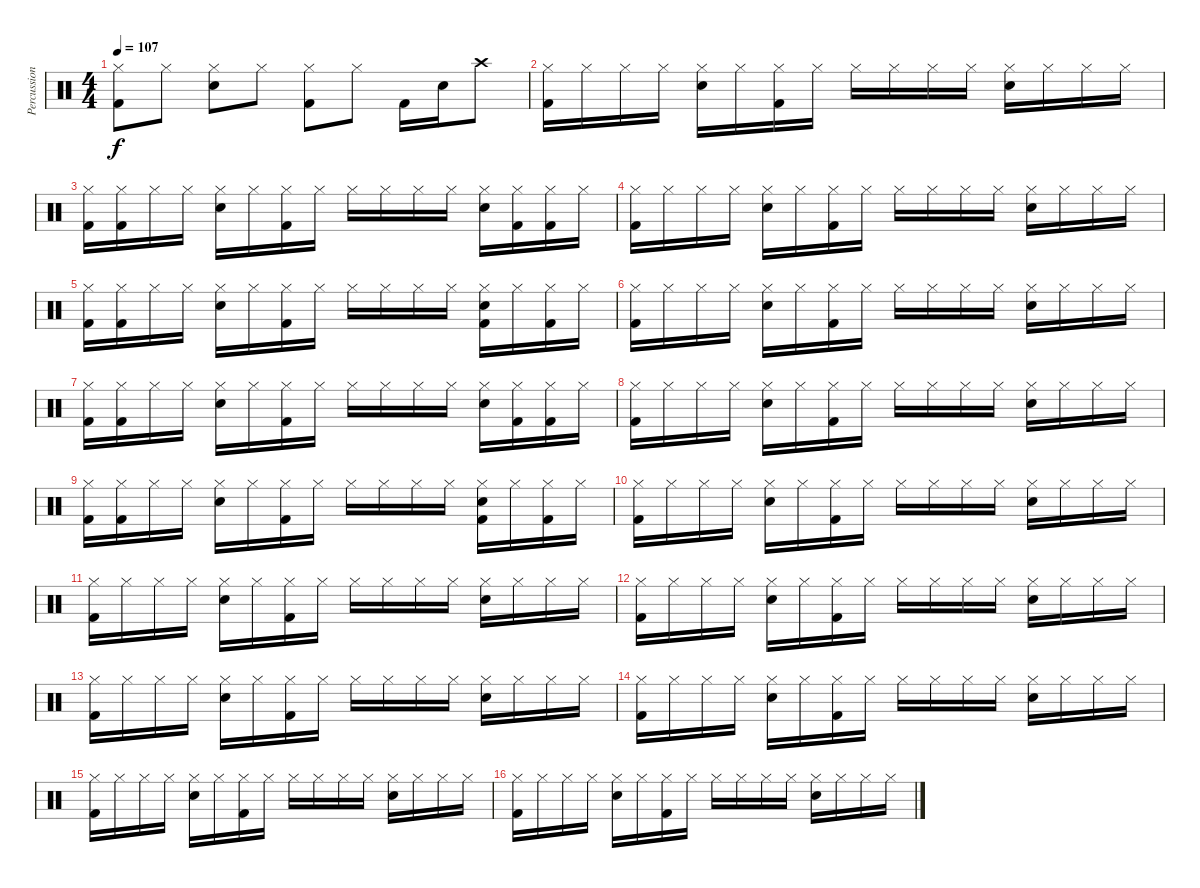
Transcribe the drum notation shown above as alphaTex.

\track ("Percussion" "Percussion") {instrument percussion}
\staff {score}
\articulation defaults
\ts (4 4)
\tempo 107
\clef neutral
\ks c
("Hi-Hat (closed)" "Kick (hit) 2").8{dy f} "Hi-Hat (closed)".8 ("Hi-Hat (closed)" "Snare (hit) 2").8 "Hi-Hat (closed)".8 ("Hi-Hat (closed)" "Kick (hit) 2").8 "Hi-Hat (closed)".8 "Kick (hit) 2".16 "Snare (hit) 2".16 "Crash high (hit)".8 |
("Hi-Hat (closed)" "Kick (hit) 2").16 "Hi-Hat (closed)".16 "Hi-Hat (closed)".16 "Hi-Hat (closed)".16 ("Hi-Hat (closed)" "Snare (hit) 2").16 "Hi-Hat (closed)".16 ("Hi-Hat (closed)" "Kick (hit) 2").16 "Hi-Hat (closed)".16 "Hi-Hat (closed)".16 "Hi-Hat (closed)".16 "Hi-Hat (closed)".16 "Hi-Hat (closed)".16 ("Hi-Hat (closed)" "Snare (hit) 2").16 "Hi-Hat (closed)".16 "Hi-Hat (closed)".16 "Hi-Hat (closed)".16 |
("Hi-Hat (closed)" "Kick (hit) 2").16 ("Hi-Hat (closed)" "Kick (hit) 2").16 "Hi-Hat (closed)".16 "Hi-Hat (closed)".16 ("Hi-Hat (closed)" "Snare (hit) 2").16 "Hi-Hat (closed)".16 ("Hi-Hat (closed)" "Kick (hit) 2").16 "Hi-Hat (closed)".16 "Hi-Hat (closed)".16 "Hi-Hat (closed)".16 "Hi-Hat (closed)".16 "Hi-Hat (closed)".16 ("Hi-Hat (closed)" "Snare (hit) 2").16 ("Hi-Hat (closed)" "Kick (hit) 2").16 ("Hi-Hat (closed)" "Kick (hit) 2").16 "Hi-Hat (closed)".16 |
("Hi-Hat (closed)" "Kick (hit) 2").16 "Hi-Hat (closed)".16 "Hi-Hat (closed)".16 "Hi-Hat (closed)".16 ("Hi-Hat (closed)" "Snare (hit) 2").16 "Hi-Hat (closed)".16 ("Hi-Hat (closed)" "Kick (hit) 2").16 "Hi-Hat (closed)".16 "Hi-Hat (closed)".16 "Hi-Hat (closed)".16 "Hi-Hat (closed)".16 "Hi-Hat (closed)".16 ("Hi-Hat (closed)" "Snare (hit) 2").16 "Hi-Hat (closed)".16 "Hi-Hat (closed)".16 "Hi-Hat (closed)".16 |
("Hi-Hat (closed)" "Kick (hit) 2").16 ("Hi-Hat (closed)" "Kick (hit) 2").16 "Hi-Hat (closed)".16 "Hi-Hat (closed)".16 ("Hi-Hat (closed)" "Snare (hit) 2").16 "Hi-Hat (closed)".16 ("Hi-Hat (closed)" "Kick (hit) 2").16 "Hi-Hat (closed)".16 "Hi-Hat (closed)".16 "Hi-Hat (closed)".16 "Hi-Hat (closed)".16 "Hi-Hat (closed)".16 ("Hi-Hat (closed)" "Snare (hit) 2" "Kick (hit) 2").16 "Hi-Hat (closed)".16 ("Hi-Hat (closed)" "Kick (hit) 2").16 "Hi-Hat (closed)".16 |
("Hi-Hat (closed)" "Kick (hit) 2").16 "Hi-Hat (closed)".16 "Hi-Hat (closed)".16 "Hi-Hat (closed)".16 ("Hi-Hat (closed)" "Snare (hit) 2").16 "Hi-Hat (closed)".16 ("Hi-Hat (closed)" "Kick (hit) 2").16 "Hi-Hat (closed)".16 "Hi-Hat (closed)".16 "Hi-Hat (closed)".16 "Hi-Hat (closed)".16 "Hi-Hat (closed)".16 ("Hi-Hat (closed)" "Snare (hit) 2").16 "Hi-Hat (closed)".16 "Hi-Hat (closed)".16 "Hi-Hat (closed)".16 |
("Hi-Hat (closed)" "Kick (hit) 2").16 ("Hi-Hat (closed)" "Kick (hit) 2").16 "Hi-Hat (closed)".16 "Hi-Hat (closed)".16 ("Hi-Hat (closed)" "Snare (hit) 2").16 "Hi-Hat (closed)".16 ("Hi-Hat (closed)" "Kick (hit) 2").16 "Hi-Hat (closed)".16 "Hi-Hat (closed)".16 "Hi-Hat (closed)".16 "Hi-Hat (closed)".16 "Hi-Hat (closed)".16 ("Hi-Hat (closed)" "Snare (hit) 2").16 ("Hi-Hat (closed)" "Kick (hit) 2").16 ("Hi-Hat (closed)" "Kick (hit) 2").16 "Hi-Hat (closed)".16 |
("Hi-Hat (closed)" "Kick (hit) 2").16 "Hi-Hat (closed)".16 "Hi-Hat (closed)".16 "Hi-Hat (closed)".16 ("Hi-Hat (closed)" "Snare (hit) 2").16 "Hi-Hat (closed)".16 ("Hi-Hat (closed)" "Kick (hit) 2").16 "Hi-Hat (closed)".16 "Hi-Hat (closed)".16 "Hi-Hat (closed)".16 "Hi-Hat (closed)".16 "Hi-Hat (closed)".16 ("Hi-Hat (closed)" "Snare (hit) 2").16 "Hi-Hat (closed)".16 "Hi-Hat (closed)".16 "Hi-Hat (closed)".16 |
("Hi-Hat (closed)" "Kick (hit) 2").16 ("Hi-Hat (closed)" "Kick (hit) 2").16 "Hi-Hat (closed)".16 "Hi-Hat (closed)".16 ("Hi-Hat (closed)" "Snare (hit) 2").16 "Hi-Hat (closed)".16 ("Hi-Hat (closed)" "Kick (hit) 2").16 "Hi-Hat (closed)".16 "Hi-Hat (closed)".16 "Hi-Hat (closed)".16 "Hi-Hat (closed)".16 "Hi-Hat (closed)".16 ("Hi-Hat (closed)" "Snare (hit) 2" "Kick (hit) 2").16 "Hi-Hat (closed)".16 ("Hi-Hat (closed)" "Kick (hit) 2").16 "Hi-Hat (closed)".16 |
("Hi-Hat (closed)" "Kick (hit) 2").16 "Hi-Hat (closed)".16 "Hi-Hat (closed)".16 "Hi-Hat (closed)".16 ("Hi-Hat (closed)" "Snare (hit) 2").16 "Hi-Hat (closed)".16 ("Hi-Hat (closed)" "Kick (hit) 2").16 "Hi-Hat (closed)".16 "Hi-Hat (closed)".16 "Hi-Hat (closed)".16 "Hi-Hat (closed)".16 "Hi-Hat (closed)".16 ("Hi-Hat (closed)" "Snare (hit) 2").16 "Hi-Hat (closed)".16 "Hi-Hat (closed)".16 "Hi-Hat (closed)".16 |
("Hi-Hat (closed)" "Kick (hit) 2").16 "Hi-Hat (closed)".16 "Hi-Hat (closed)".16 "Hi-Hat (closed)".16 ("Hi-Hat (closed)" "Snare (hit) 2").16 "Hi-Hat (closed)".16 ("Hi-Hat (closed)" "Kick (hit) 2").16 "Hi-Hat (closed)".16 "Hi-Hat (closed)".16 "Hi-Hat (closed)".16 "Hi-Hat (closed)".16 "Hi-Hat (closed)".16 ("Hi-Hat (closed)" "Snare (hit) 2").16 "Hi-Hat (closed)".16 "Hi-Hat (closed)".16 "Hi-Hat (closed)".16 |
("Hi-Hat (closed)" "Kick (hit) 2").16 "Hi-Hat (closed)".16 "Hi-Hat (closed)".16 "Hi-Hat (closed)".16 ("Hi-Hat (closed)" "Snare (hit) 2").16 "Hi-Hat (closed)".16 ("Hi-Hat (closed)" "Kick (hit) 2").16 "Hi-Hat (closed)".16 "Hi-Hat (closed)".16 "Hi-Hat (closed)".16 "Hi-Hat (closed)".16 "Hi-Hat (closed)".16 ("Hi-Hat (closed)" "Snare (hit) 2").16 "Hi-Hat (closed)".16 "Hi-Hat (closed)".16 "Hi-Hat (closed)".16 |
("Hi-Hat (closed)" "Kick (hit) 2").16 "Hi-Hat (closed)".16 "Hi-Hat (closed)".16 "Hi-Hat (closed)".16 ("Hi-Hat (closed)" "Snare (hit) 2").16 "Hi-Hat (closed)".16 ("Hi-Hat (closed)" "Kick (hit) 2").16 "Hi-Hat (closed)".16 "Hi-Hat (closed)".16 "Hi-Hat (closed)".16 "Hi-Hat (closed)".16 "Hi-Hat (closed)".16 ("Hi-Hat (closed)" "Snare (hit) 2").16 "Hi-Hat (closed)".16 "Hi-Hat (closed)".16 "Hi-Hat (closed)".16 |
("Hi-Hat (closed)" "Kick (hit) 2").16 "Hi-Hat (closed)".16 "Hi-Hat (closed)".16 "Hi-Hat (closed)".16 ("Hi-Hat (closed)" "Snare (hit) 2").16 "Hi-Hat (closed)".16 ("Hi-Hat (closed)" "Kick (hit) 2").16 "Hi-Hat (closed)".16 "Hi-Hat (closed)".16 "Hi-Hat (closed)".16 "Hi-Hat (closed)".16 "Hi-Hat (closed)".16 ("Hi-Hat (closed)" "Snare (hit) 2").16 "Hi-Hat (closed)".16 "Hi-Hat (closed)".16 "Hi-Hat (closed)".16 |
("Hi-Hat (closed)" "Kick (hit) 2").16 "Hi-Hat (closed)".16 "Hi-Hat (closed)".16 "Hi-Hat (closed)".16 ("Hi-Hat (closed)" "Snare (hit) 2").16 "Hi-Hat (closed)".16 ("Hi-Hat (closed)" "Kick (hit) 2").16 "Hi-Hat (closed)".16 "Hi-Hat (closed)".16 "Hi-Hat (closed)".16 "Hi-Hat (closed)".16 "Hi-Hat (closed)".16 ("Hi-Hat (closed)" "Snare (hit) 2").16 "Hi-Hat (closed)".16 "Hi-Hat (closed)".16 "Hi-Hat (closed)".16 |
("Hi-Hat (closed)" "Kick (hit) 2").16 "Hi-Hat (closed)".16 "Hi-Hat (closed)".16 "Hi-Hat (closed)".16 ("Hi-Hat (closed)" "Snare (hit) 2").16 "Hi-Hat (closed)".16 ("Hi-Hat (closed)" "Kick (hit) 2").16 "Hi-Hat (closed)".16 "Hi-Hat (closed)".16 "Hi-Hat (closed)".16 "Hi-Hat (closed)".16 "Hi-Hat (closed)".16 ("Hi-Hat (closed)" "Snare (hit) 2").16 "Hi-Hat (closed)".16 "Hi-Hat (closed)".16 "Hi-Hat (closed)".16
